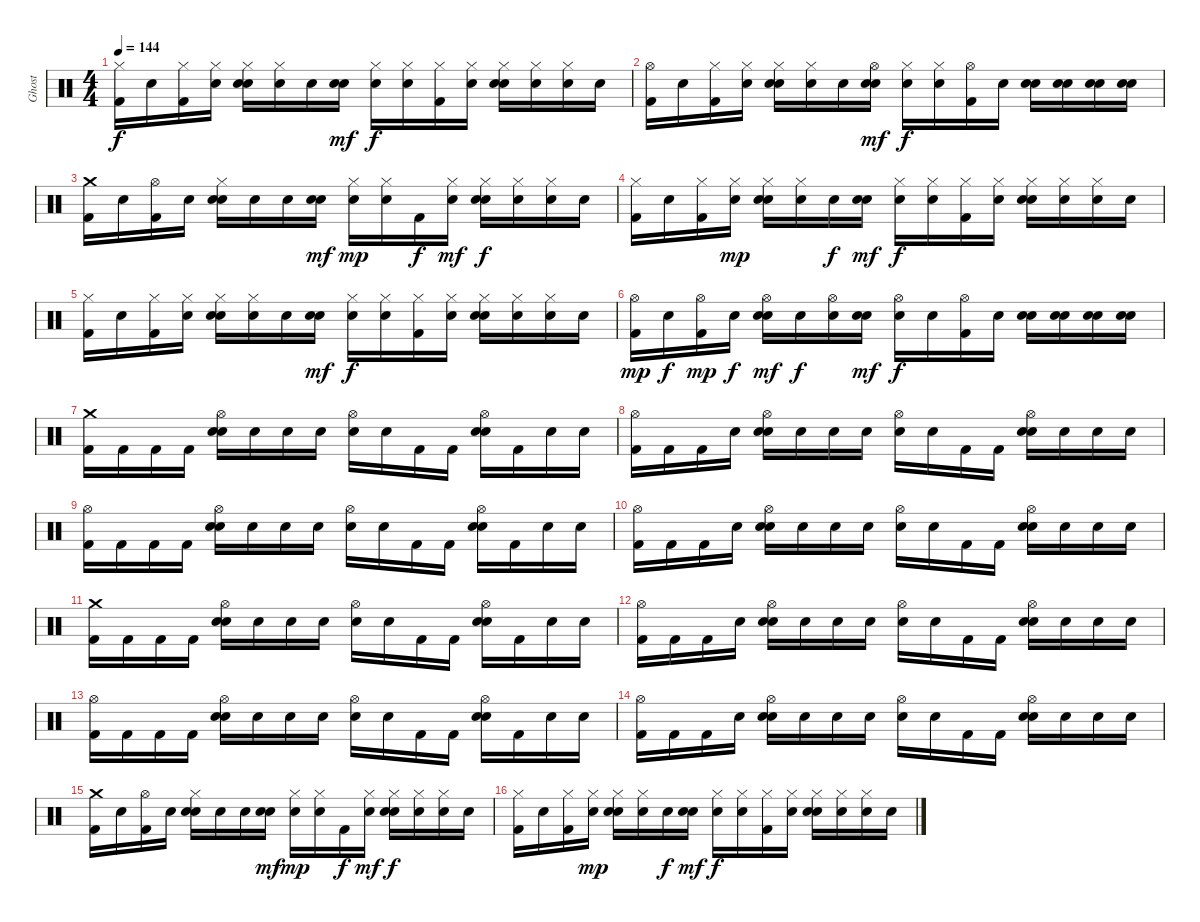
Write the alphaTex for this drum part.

\track ("Ghost" "Ghost") {instrument percussion}
\staff {score}
\articulation defaults
\ts (4 4)
\tempo 144
\clef neutral
\ks c
("Hi-Hat (closed)" "Kick (hit) 2").16{dy f} "Snare (hit)".16 ("Hi-Hat (closed)" "Kick (hit) 2").16 ("Hi-Hat (closed)" "Snare (hit)").16 ("Hi-Hat (closed)" "Electric Snare (hit)" "Snare (hit)").16 ("Hi-Hat (closed)" "Snare (hit)").16 "Snare (hit)".16 ("Electric Snare (hit)" "Snare (hit)").16{dy mf} ("Hi-Hat (closed)" "Snare (hit)").16{dy f} ("Hi-Hat (closed)" "Snare (hit)").16 ("Hi-Hat (closed)" "Kick (hit) 2").16 ("Hi-Hat (closed)" "Snare (hit)").16 ("Hi-Hat (closed)" "Electric Snare (hit)" "Snare (hit)").16 ("Hi-Hat (closed)" "Snare (hit)").16 ("Hi-Hat (closed)" "Snare (hit)").16 "Snare (hit)".16 |
("Hi-Hat (open)" "Kick (hit) 2").16 "Snare (hit)".16 ("Hi-Hat (closed)" "Kick (hit) 2").16 ("Hi-Hat (closed)" "Snare (hit)").16 ("Hi-Hat (closed)" "Electric Snare (hit)" "Snare (hit)").16 ("Hi-Hat (closed)" "Snare (hit)").16 "Snare (hit)".16 ("Hi-Hat (open)" "Electric Snare (hit)" "Snare (hit)").16{dy mf} ("Hi-Hat (closed)" "Snare (hit)").16{dy f} ("Hi-Hat (closed)" "Snare (hit)").16 ("Hi-Hat (open)" "Kick (hit) 2").16 "Snare (hit)".16 ("Electric Snare (hit)" "Snare (hit)").16 ("Electric Snare (hit)" "Snare (hit)").16 ("Electric Snare (hit)" "Snare (hit)").16 ("Electric Snare (hit)" "Snare (hit)").16 |
("Crash medium (hit)" "Kick (hit) 2").16 "Snare (hit)".16 ("Hi-Hat (open)" "Kick (hit) 2").16 "Snare (hit)".16 ("Hi-Hat (closed)" "Electric Snare (hit)" "Snare (hit)").16 "Snare (hit)".16 "Snare (hit)".16 ("Electric Snare (hit)" "Snare (hit)").16{dy mf} ("Hi-Hat (closed)" "Snare (hit)").16{dy mp} ("Hi-Hat (closed)" "Snare (hit)").16 "Kick (hit) 2".16{dy f} ("Hi-Hat (closed)" "Snare (hit)").16{dy mf} ("Hi-Hat (closed)" "Electric Snare (hit)" "Snare (hit)").16{dy f} ("Hi-Hat (closed)" "Snare (hit)").16 ("Hi-Hat (closed)" "Snare (hit)").16 "Snare (hit)".16 |
("Hi-Hat (closed)" "Kick (hit) 2").16 "Snare (hit)".16 ("Hi-Hat (closed)" "Kick (hit) 2").16 ("Hi-Hat (closed)" "Snare (hit)").16{dy mp} ("Hi-Hat (closed)" "Electric Snare (hit)" "Snare (hit)").16 ("Hi-Hat (closed)" "Snare (hit)").16 "Snare (hit)".16{dy f} ("Electric Snare (hit)" "Snare (hit)").16{dy mf} ("Hi-Hat (closed)" "Snare (hit)").16{dy f} ("Hi-Hat (closed)" "Snare (hit)").16 ("Hi-Hat (closed)" "Kick (hit) 2").16 ("Hi-Hat (closed)" "Snare (hit)").16 ("Hi-Hat (closed)" "Electric Snare (hit)" "Snare (hit)").16 ("Hi-Hat (closed)" "Snare (hit)").16 ("Hi-Hat (closed)" "Snare (hit)").16 "Snare (hit)".16 |
("Hi-Hat (closed)" "Kick (hit) 2").16 "Snare (hit)".16 ("Hi-Hat (closed)" "Kick (hit) 2").16 ("Hi-Hat (closed)" "Snare (hit)").16 ("Hi-Hat (closed)" "Electric Snare (hit)" "Snare (hit)").16 ("Hi-Hat (closed)" "Snare (hit)").16 "Snare (hit)".16 ("Electric Snare (hit)" "Snare (hit)").16{dy mf} ("Hi-Hat (closed)" "Snare (hit)").16{dy f} ("Hi-Hat (closed)" "Snare (hit)").16 ("Hi-Hat (closed)" "Kick (hit) 2").16 ("Hi-Hat (closed)" "Snare (hit)").16 ("Hi-Hat (closed)" "Electric Snare (hit)" "Snare (hit)").16 ("Hi-Hat (closed)" "Snare (hit)").16 ("Hi-Hat (closed)" "Snare (hit)").16 "Snare (hit)".16 |
("Hi-Hat (open)" "Kick (hit) 2").16{dy mp} "Snare (hit)".16{dy f} ("Hi-Hat (open)" "Kick (hit) 2").16{dy mp} "Snare (hit)".16{dy f} ("Hi-Hat (open)" "Electric Snare (hit)" "Snare (hit)").16{dy mf} "Snare (hit)".16{dy f} ("Hi-Hat (open)" "Snare (hit)").16 ("Electric Snare (hit)" "Snare (hit)").16{dy mf} ("Hi-Hat (open)" "Snare (hit)").16{dy f} "Snare (hit)".16 ("Hi-Hat (open)" "Kick (hit) 2").16 "Snare (hit)".16 ("Electric Snare (hit)" "Snare (hit)").16 ("Electric Snare (hit)" "Snare (hit)").16 ("Electric Snare (hit)" "Snare (hit)").16 ("Electric Snare (hit)" "Snare (hit)").16 |
("Crash medium (hit)" "Kick (hit) 2").16 "Kick (hit) 2".16 "Kick (hit) 2".16 "Kick (hit) 2".16 ("Hi-Hat (open)" "Electric Snare (hit)" "Snare (hit)").16 "Snare (hit)".16 "Snare (hit)".16 "Electric Snare (hit)".16 ("Hi-Hat (open)" "Snare (hit)").16 "Snare (hit)".16 "Kick (hit) 2".16 "Kick (hit) 2".16 ("Hi-Hat (open)" "Electric Snare (hit)" "Snare (hit)").16 "Kick (hit) 2".16 "Snare (hit)".16 "Snare (hit)".16 |
("Hi-Hat (open)" "Kick (hit) 2").16 "Kick (hit) 2".16 "Kick (hit) 2".16 "Snare (hit)".16 ("Hi-Hat (open)" "Electric Snare (hit)" "Snare (hit)").16 "Snare (hit)".16 "Snare (hit)".16 "Electric Snare (hit)".16 ("Hi-Hat (open)" "Snare (hit)").16 "Snare (hit)".16 "Kick (hit) 2".16 "Kick (hit) 2".16 ("Hi-Hat (open)" "Electric Snare (hit)" "Snare (hit)").16 "Snare (hit)".16 "Snare (hit)".16 "Snare (hit)".16 |
("Hi-Hat (open)" "Kick (hit) 2").16 "Kick (hit) 2".16 "Kick (hit) 2".16 "Kick (hit) 2".16 ("Hi-Hat (open)" "Electric Snare (hit)" "Snare (hit)").16 "Snare (hit)".16 "Snare (hit)".16 "Electric Snare (hit)".16 ("Hi-Hat (open)" "Snare (hit)").16 "Snare (hit)".16 "Kick (hit) 2".16 "Kick (hit) 2".16 ("Hi-Hat (open)" "Electric Snare (hit)" "Snare (hit)").16 "Kick (hit) 2".16 "Snare (hit)".16 "Snare (hit)".16 |
("Hi-Hat (open)" "Kick (hit) 2").16 "Kick (hit) 2".16 "Kick (hit) 2".16 "Snare (hit)".16 ("Hi-Hat (open)" "Electric Snare (hit)" "Snare (hit)").16 "Snare (hit)".16 "Snare (hit)".16 "Electric Snare (hit)".16 ("Hi-Hat (open)" "Snare (hit)").16 "Snare (hit)".16 "Kick (hit) 2".16 "Kick (hit) 2".16 ("Hi-Hat (open)" "Electric Snare (hit)" "Snare (hit)").16 "Snare (hit)".16 "Snare (hit)".16 "Snare (hit)".16 |
("Crash medium (hit)" "Kick (hit) 2").16 "Kick (hit) 2".16 "Kick (hit) 2".16 "Kick (hit) 2".16 ("Hi-Hat (open)" "Electric Snare (hit)" "Snare (hit)").16 "Snare (hit)".16 "Snare (hit)".16 "Electric Snare (hit)".16 ("Hi-Hat (open)" "Snare (hit)").16 "Snare (hit)".16 "Kick (hit) 2".16 "Kick (hit) 2".16 ("Hi-Hat (open)" "Electric Snare (hit)" "Snare (hit)").16 "Kick (hit) 2".16 "Snare (hit)".16 "Snare (hit)".16 |
("Hi-Hat (open)" "Kick (hit) 2").16 "Kick (hit) 2".16 "Kick (hit) 2".16 "Snare (hit)".16 ("Hi-Hat (open)" "Electric Snare (hit)" "Snare (hit)").16 "Snare (hit)".16 "Snare (hit)".16 "Electric Snare (hit)".16 ("Hi-Hat (open)" "Snare (hit)").16 "Snare (hit)".16 "Kick (hit) 2".16 "Kick (hit) 2".16 ("Hi-Hat (open)" "Electric Snare (hit)" "Snare (hit)").16 "Snare (hit)".16 "Snare (hit)".16 "Snare (hit)".16 |
("Hi-Hat (open)" "Kick (hit) 2").16 "Kick (hit) 2".16 "Kick (hit) 2".16 "Kick (hit) 2".16 ("Hi-Hat (open)" "Electric Snare (hit)" "Snare (hit)").16 "Snare (hit)".16 "Snare (hit)".16 "Electric Snare (hit)".16 ("Hi-Hat (open)" "Snare (hit)").16 "Snare (hit)".16 "Kick (hit) 2".16 "Kick (hit) 2".16 ("Hi-Hat (open)" "Electric Snare (hit)" "Snare (hit)").16 "Kick (hit) 2".16 "Snare (hit)".16 "Snare (hit)".16 |
("Hi-Hat (open)" "Kick (hit) 2").16 "Kick (hit) 2".16 "Kick (hit) 2".16 "Snare (hit)".16 ("Hi-Hat (open)" "Electric Snare (hit)" "Snare (hit)").16 "Snare (hit)".16 "Snare (hit)".16 "Electric Snare (hit)".16 ("Hi-Hat (open)" "Snare (hit)").16 "Snare (hit)".16 "Kick (hit) 2".16 "Kick (hit) 2".16 ("Hi-Hat (open)" "Electric Snare (hit)" "Snare (hit)").16 "Snare (hit)".16 "Snare (hit)".16 "Snare (hit)".16 |
("Crash medium (hit)" "Kick (hit) 2").16 "Snare (hit)".16 ("Hi-Hat (open)" "Kick (hit) 2").16 "Snare (hit)".16 ("Hi-Hat (closed)" "Electric Snare (hit)" "Snare (hit)").16 "Snare (hit)".16 "Snare (hit)".16 ("Electric Snare (hit)" "Snare (hit)").16{dy mf} ("Hi-Hat (closed)" "Snare (hit)").16{dy mp} ("Hi-Hat (closed)" "Snare (hit)").16 "Kick (hit) 2".16{dy f} ("Hi-Hat (closed)" "Snare (hit)").16{dy mf} ("Hi-Hat (closed)" "Electric Snare (hit)" "Snare (hit)").16{dy f} ("Hi-Hat (closed)" "Snare (hit)").16 ("Hi-Hat (closed)" "Snare (hit)").16 "Snare (hit)".16 |
("Hi-Hat (closed)" "Kick (hit) 2").16 "Snare (hit)".16 ("Hi-Hat (closed)" "Kick (hit) 2").16 ("Hi-Hat (closed)" "Snare (hit)").16{dy mp} ("Hi-Hat (closed)" "Electric Snare (hit)" "Snare (hit)").16 ("Hi-Hat (closed)" "Snare (hit)").16 "Snare (hit)".16{dy f} ("Electric Snare (hit)" "Snare (hit)").16{dy mf} ("Hi-Hat (closed)" "Snare (hit)").16{dy f} ("Hi-Hat (closed)" "Snare (hit)").16 ("Hi-Hat (closed)" "Kick (hit) 2").16 ("Hi-Hat (closed)" "Snare (hit)").16 ("Hi-Hat (closed)" "Electric Snare (hit)" "Snare (hit)").16 ("Hi-Hat (closed)" "Snare (hit)").16 ("Hi-Hat (closed)" "Snare (hit)").16 "Snare (hit)".16
